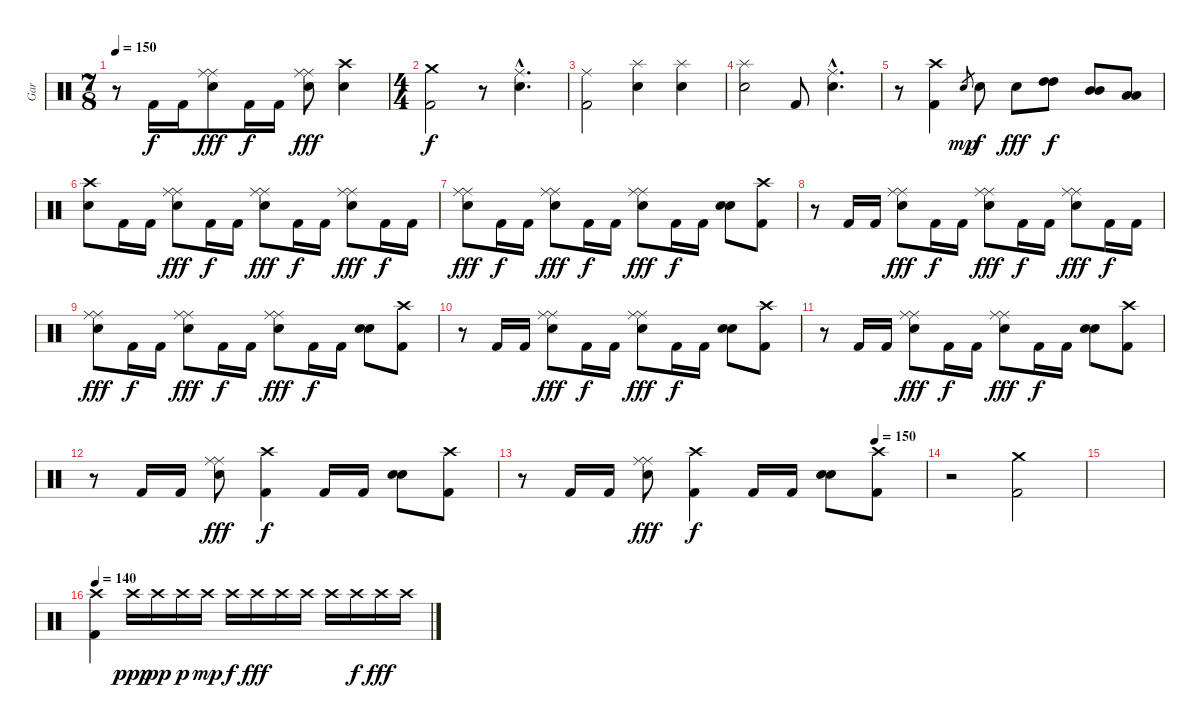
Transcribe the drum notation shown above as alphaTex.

\track ("Gar" "Gar") {instrument percussion}
\staff {score}
\articulation defaults
\ts (7 8)
\tempo 150
\clef neutral
\ks c
r.8{dy f} "Kick (hit) 2".16 "Kick (hit) 2".16 ("Ride (middle)" "Ride (middle)" "Snare (hit) 2").8{dy fff} "Kick (hit) 2".16{dy f} "Kick (hit) 2".16 ("Ride (middle)" "Ride (middle)" "Snare (hit) 2").8{dy fff} ("Crash high (hit)" "Snare (hit) 2").4 |
\ts (4 4)
("Crash medium (hit)" "Kick (hit) 2").2{dy f} r.8 ("Ride (middle)"{hac} "Snare (hit) 2"{hac}).4{d} |
("Ride (middle)" "Kick (hit) 2").2 ("Splash (hit)" "Snare (hit) 2").4 ("Splash (hit)" "Snare (hit) 2").4 |
("Splash (hit)" "Snare (hit) 2").2 "Kick (hit) 2".8 ("Ride (middle)"{hac} "Snare (hit) 2"{hac}).4{d} |
r.8 ("Crash high (hit)" "Kick (hit) 2").4 "Snare (hit) 2".8{gr dy mp} "Snare (hit) 2".8{dy f} "Snare (hit) 2".8{dy fff} ("High Tom (hit)" "High Tom (hit)").8{dy f} ("Mid Tom (hit)" "Mid Tom (hit)").8 ("Low Tom (hit)" "Low Tom (hit)").8 |
("Crash high (hit)" "Snare (hit) 2").8 "Kick (hit) 2".16 "Kick (hit) 2".16 ("Ride (middle)" "Ride (middle)" "Snare (hit) 2").8{dy fff} "Kick (hit) 2".16{dy f} "Kick (hit) 2".16 ("Ride (middle)" "Ride (middle)" "Snare (hit) 2").8{dy fff} "Kick (hit) 2".16{dy f} "Kick (hit) 2".16 ("Ride (middle)" "Ride (middle)" "Snare (hit) 2").8{dy fff} "Kick (hit) 2".16{dy f} "Kick (hit) 2".16 |
("Ride (middle)" "Ride (middle)" "Snare (hit) 2").8{dy fff} "Kick (hit) 2".16{dy f} "Kick (hit) 2".16 ("Ride (middle)" "Ride (middle)" "Snare (hit) 2").8{dy fff} "Kick (hit) 2".16{dy f} "Kick (hit) 2".16 ("Ride (middle)" "Ride (middle)" "Snare (hit) 2").8{dy fff} "Kick (hit) 2".16{dy f} "Kick (hit) 2".16 ("Snare (hit) 2" "Snare (hit) 2").8 ("Crash high (hit)" "Kick (hit) 2").8 |
r.8 "Kick (hit) 2".16 "Kick (hit) 2".16 ("Ride (middle)" "Ride (middle)" "Snare (hit) 2").8{dy fff} "Kick (hit) 2".16{dy f} "Kick (hit) 2".16 ("Ride (middle)" "Ride (middle)" "Snare (hit) 2").8{dy fff} "Kick (hit) 2".16{dy f} "Kick (hit) 2".16 ("Ride (middle)" "Ride (middle)" "Snare (hit) 2").8{dy fff} "Kick (hit) 2".16{dy f} "Kick (hit) 2".16 |
("Ride (middle)" "Ride (middle)" "Snare (hit) 2").8{dy fff} "Kick (hit) 2".16{dy f} "Kick (hit) 2".16 ("Ride (middle)" "Ride (middle)" "Snare (hit) 2").8{dy fff} "Kick (hit) 2".16{dy f} "Kick (hit) 2".16 ("Ride (middle)" "Ride (middle)" "Snare (hit) 2").8{dy fff} "Kick (hit) 2".16{dy f} "Kick (hit) 2".16 ("Snare (hit) 2" "Snare (hit) 2").8 ("Crash high (hit)" "Kick (hit) 2").8 |
r.8 "Kick (hit) 2".16 "Kick (hit) 2".16 ("Ride (middle)" "Ride (middle)" "Snare (hit) 2").8{dy fff} "Kick (hit) 2".16{dy f} "Kick (hit) 2".16 ("Ride (middle)" "Ride (middle)" "Snare (hit) 2").8{dy fff} "Kick (hit) 2".16{dy f} "Kick (hit) 2".16 ("Snare (hit) 2" "Snare (hit) 2").8 ("Crash high (hit)" "Kick (hit) 2").8 |
r.8 "Kick (hit) 2".16 "Kick (hit) 2".16 ("Ride (middle)" "Ride (middle)" "Snare (hit) 2").8{dy fff} "Kick (hit) 2".16{dy f} "Kick (hit) 2".16 ("Ride (middle)" "Ride (middle)" "Snare (hit) 2").8{dy fff} "Kick (hit) 2".16{dy f} "Kick (hit) 2".16 ("Snare (hit) 2" "Snare (hit) 2").8 ("Crash high (hit)" "Kick (hit) 2").8 |
r.8 "Kick (hit) 2".16 "Kick (hit) 2".16 ("Ride (middle)" "Ride (middle)" "Snare (hit) 2").8{dy fff} ("Crash high (hit)" "Kick (hit) 2").4{dy f} "Kick (hit) 2".16 "Kick (hit) 2".16 ("Snare (hit) 2" "Snare (hit) 2").8 ("Crash high (hit)" "Kick (hit) 2").8 |
\tempo (150 0.875)
r.8 "Kick (hit) 2".16 "Kick (hit) 2".16 ("Ride (middle)" "Ride (middle)" "Snare (hit) 2").8{dy fff} ("Crash high (hit)" "Kick (hit) 2").4{dy f} "Kick (hit) 2".16 "Kick (hit) 2".16 ("Snare (hit) 2" "Snare (hit) 2").8 ("Crash high (hit)" "Kick (hit) 2").8 |
r.2 ("Crash medium (hit)" "Kick (hit) 2").2 |
|
\tempo 140
("Crash high (hit)" "Kick (hit) 2").4 "Crash high (hit)".16{dy ppp} "Crash high (hit)".16{dy pp} "Crash high (hit)".16{dy p} "Crash high (hit)".16{dy mp} "Crash high (hit)".16{dy f} "Crash high (hit)".16{dy fff} "Crash high (hit)".16 "Crash high (hit)".16 "Crash high (hit)".16 "Crash high (hit)".16{dy f} "Crash high (hit)".16{dy fff} "Crash high (hit)".16
